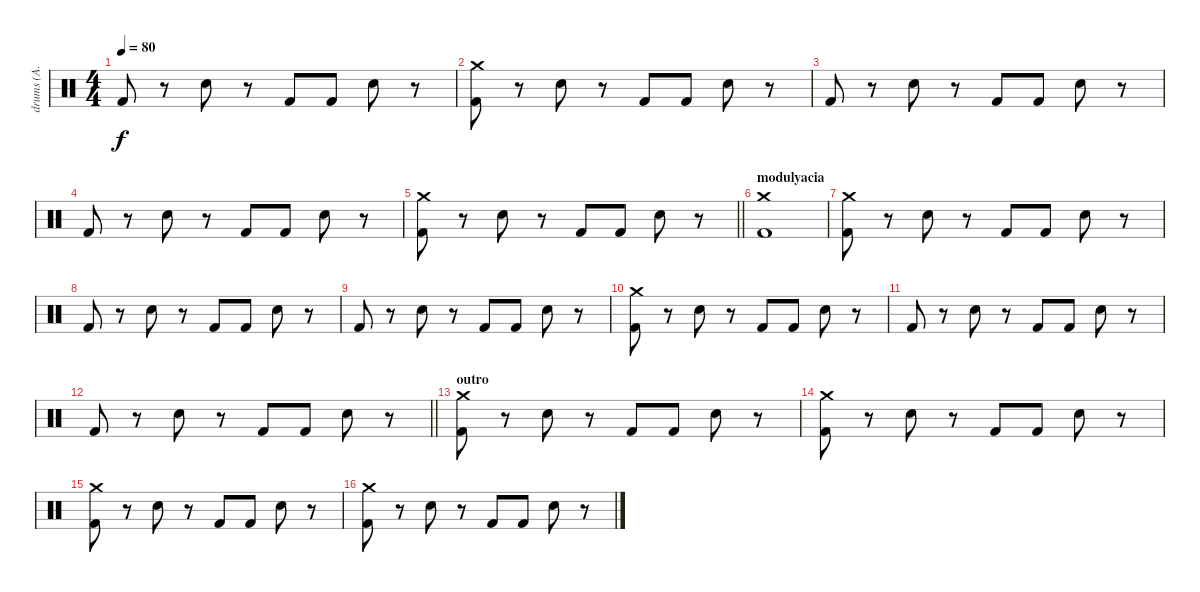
\track ("drums (А. Котов)" "drums (А. ") {instrument percussion}
\staff {score}
\articulation defaults
\ts (4 4)
\tempo 80
\clef neutral
\ks c "Kick (hit) 2".8{dy f}
r.8 "Snare (hit) 2".8 r.8 "Kick (hit) 2".8 "Kick (hit) 2".8 "Snare (hit) 2".8 r.8 |
("Kick (hit) 2" "Crash medium (hit)").8 r.8 "Snare (hit) 2".8 r.8 "Kick (hit) 2".8 "Kick (hit) 2".8 "Snare (hit) 2".8 r.8 |
"Kick (hit) 2".8 r.8 "Snare (hit) 2".8 r.8 "Kick (hit) 2".8 "Kick (hit) 2".8 "Snare (hit) 2".8 r.8 |
"Kick (hit) 2".8 r.8 "Snare (hit) 2".8 r.8 "Kick (hit) 2".8 "Kick (hit) 2".8 "Snare (hit) 2".8 r.8 |
\barLineRight lightlight
("Kick (hit) 2" "Crash medium (hit)").8 r.8 "Snare (hit) 2".8 r.8 "Kick (hit) 2".8 "Kick (hit) 2".8 "Snare (hit) 2".8 r.8 |
\section ("" "modulyacia")
("Kick (hit) 2" "Crash medium (hit)").1 |
("Kick (hit) 2" "Crash medium (hit)").8 r.8 "Snare (hit) 2".8 r.8 "Kick (hit) 2".8 "Kick (hit) 2".8 "Snare (hit) 2".8 r.8 |
"Kick (hit) 2".8 r.8 "Snare (hit) 2".8 r.8 "Kick (hit) 2".8 "Kick (hit) 2".8 "Snare (hit) 2".8 r.8 |
"Kick (hit) 2".8 r.8 "Snare (hit) 2".8 r.8 "Kick (hit) 2".8 "Kick (hit) 2".8 "Snare (hit) 2".8 r.8 |
("Kick (hit) 2" "Crash medium (hit)").8 r.8 "Snare (hit) 2".8 r.8 "Kick (hit) 2".8 "Kick (hit) 2".8 "Snare (hit) 2".8 r.8 |
"Kick (hit) 2".8 r.8 "Snare (hit) 2".8 r.8 "Kick (hit) 2".8 "Kick (hit) 2".8 "Snare (hit) 2".8 r.8 |
\barLineRight lightlight "Kick (hit) 2".8
r.8 "Snare (hit) 2".8 r.8 "Kick (hit) 2".8 "Kick (hit) 2".8 "Snare (hit) 2".8 r.8 |
\section ("" "outro")
("Kick (hit) 2" "Crash medium (hit)").8 r.8 "Snare (hit) 2".8 r.8 "Kick (hit) 2".8 "Kick (hit) 2".8 "Snare (hit) 2".8 r.8 |
("Kick (hit) 2" "Crash medium (hit)").8 r.8 "Snare (hit) 2".8 r.8 "Kick (hit) 2".8 "Kick (hit) 2".8 "Snare (hit) 2".8 r.8 |
("Kick (hit) 2" "Crash medium (hit)").8 r.8 "Snare (hit) 2".8 r.8 "Kick (hit) 2".8 "Kick (hit) 2".8 "Snare (hit) 2".8 r.8 |
("Kick (hit) 2" "Crash medium (hit)").8 r.8 "Snare (hit) 2".8 r.8 "Kick (hit) 2".8 "Kick (hit) 2".8 "Snare (hit) 2".8 r.8
